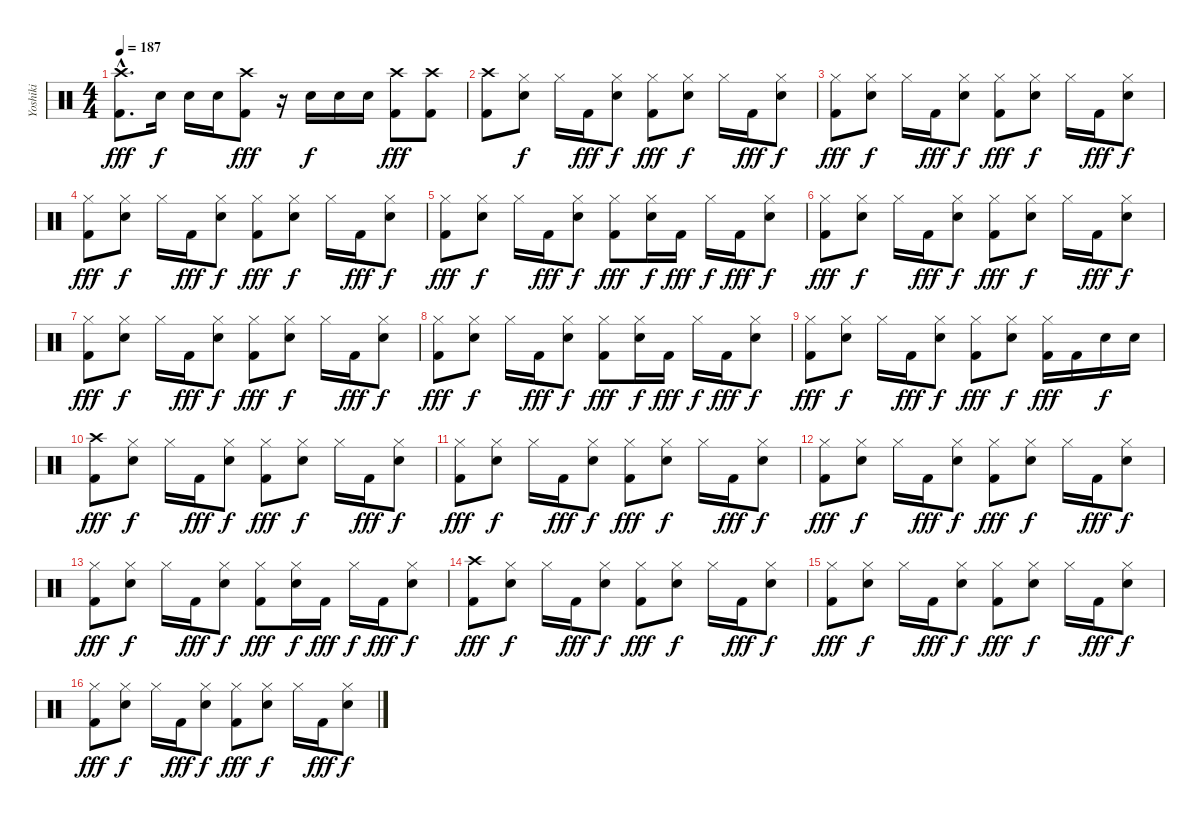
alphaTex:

\track ("Yoshiki" "Yoshiki") {instrument percussion}
\staff {score}
\articulation defaults
\ts (4 4)
\tempo 187
\clef neutral
\ks c
("Crash high (hit)"{hac} "Kick (hit) 2"{hac}).8{d dy fff} "Electric Snare (hit)".16{dy f} "Electric Snare (hit)".16 "Electric Snare (hit)".16 ("Crash high (hit)" "Kick (hit) 2").8{dy fff} r.16 "Electric Snare (hit)".16{dy f} "Electric Snare (hit)".16 "Electric Snare (hit)".16 ("Crash high (hit)" "Kick (hit) 2").8{dy fff} ("Crash high (hit)" "Kick (hit) 2").8 |
("Crash high (hit)" "Kick (hit) 2").8 ("Hi-Hat (closed)" "Electric Snare (hit)").8{dy f} "Hi-Hat (closed)".16 "Kick (hit) 2".16{dy fff} ("Hi-Hat (closed)" "Electric Snare (hit)").8{dy f} ("Hi-Hat (closed)" "Kick (hit) 2").8{dy fff} ("Hi-Hat (closed)" "Electric Snare (hit)").8{dy f} "Hi-Hat (closed)".16 "Kick (hit) 2".16{dy fff} ("Hi-Hat (closed)" "Electric Snare (hit)").8{dy f} |
("Hi-Hat (closed)" "Kick (hit) 2").8{dy fff} ("Hi-Hat (closed)" "Electric Snare (hit)").8{dy f} "Hi-Hat (closed)".16 "Kick (hit) 2".16{dy fff} ("Hi-Hat (closed)" "Electric Snare (hit)").8{dy f} ("Hi-Hat (closed)" "Kick (hit) 2").8{dy fff} ("Hi-Hat (closed)" "Electric Snare (hit)").8{dy f} "Hi-Hat (closed)".16 "Kick (hit) 2".16{dy fff} ("Hi-Hat (closed)" "Electric Snare (hit)").8{dy f} |
("Hi-Hat (closed)" "Kick (hit) 2").8{dy fff} ("Hi-Hat (closed)" "Electric Snare (hit)").8{dy f} "Hi-Hat (closed)".16 "Kick (hit) 2".16{dy fff} ("Hi-Hat (closed)" "Electric Snare (hit)").8{dy f} ("Hi-Hat (closed)" "Kick (hit) 2").8{dy fff} ("Hi-Hat (closed)" "Electric Snare (hit)").8{dy f} "Hi-Hat (closed)".16 "Kick (hit) 2".16{dy fff} ("Hi-Hat (closed)" "Electric Snare (hit)").8{dy f} |
("Hi-Hat (closed)" "Kick (hit) 2").8{dy fff} ("Hi-Hat (closed)" "Electric Snare (hit)").8{dy f} "Hi-Hat (closed)".16 "Kick (hit) 2".16{dy fff} ("Hi-Hat (closed)" "Electric Snare (hit)").8{dy f} ("Hi-Hat (closed)" "Kick (hit) 2").8{dy fff} ("Hi-Hat (closed)" "Electric Snare (hit)").16{dy f} "Kick (hit) 2".16{dy fff} "Hi-Hat (closed)".16{dy f} "Kick (hit) 2".16{dy fff} ("Hi-Hat (closed)" "Electric Snare (hit)").8{dy f} |
("Hi-Hat (closed)" "Kick (hit) 2").8{dy fff} ("Hi-Hat (closed)" "Electric Snare (hit)").8{dy f} "Hi-Hat (closed)".16 "Kick (hit) 2".16{dy fff} ("Hi-Hat (closed)" "Electric Snare (hit)").8{dy f} ("Hi-Hat (closed)" "Kick (hit) 2").8{dy fff} ("Hi-Hat (closed)" "Electric Snare (hit)").8{dy f} "Hi-Hat (closed)".16 "Kick (hit) 2".16{dy fff} ("Hi-Hat (closed)" "Electric Snare (hit)").8{dy f} |
("Hi-Hat (closed)" "Kick (hit) 2").8{dy fff} ("Hi-Hat (closed)" "Electric Snare (hit)").8{dy f} "Hi-Hat (closed)".16 "Kick (hit) 2".16{dy fff} ("Hi-Hat (closed)" "Electric Snare (hit)").8{dy f} ("Hi-Hat (closed)" "Kick (hit) 2").8{dy fff} ("Hi-Hat (closed)" "Electric Snare (hit)").8{dy f} "Hi-Hat (closed)".16 "Kick (hit) 2".16{dy fff} ("Hi-Hat (closed)" "Electric Snare (hit)").8{dy f} |
("Hi-Hat (closed)" "Kick (hit) 2").8{dy fff} ("Hi-Hat (closed)" "Electric Snare (hit)").8{dy f} "Hi-Hat (closed)".16 "Kick (hit) 2".16{dy fff} ("Hi-Hat (closed)" "Electric Snare (hit)").8{dy f} ("Hi-Hat (closed)" "Kick (hit) 2").8{dy fff} ("Hi-Hat (closed)" "Electric Snare (hit)").16{dy f} "Kick (hit) 2".16{dy fff} "Hi-Hat (closed)".16{dy f} "Kick (hit) 2".16{dy fff} ("Hi-Hat (closed)" "Electric Snare (hit)").8{dy f} |
("Hi-Hat (closed)" "Kick (hit) 2").8{dy fff} ("Hi-Hat (closed)" "Electric Snare (hit)").8{dy f} "Hi-Hat (closed)".16 "Kick (hit) 2".16{dy fff} ("Hi-Hat (closed)" "Electric Snare (hit)").8{dy f} ("Hi-Hat (closed)" "Kick (hit) 2").8{dy fff} ("Hi-Hat (closed)" "Electric Snare (hit)").8{dy f} ("Hi-Hat (closed)" "Kick (hit) 2").16{dy fff} "Kick (hit) 2".16 "Electric Snare (hit)".16{dy f} "Electric Snare (hit)".16 |
("Crash high (hit)" "Kick (hit) 2").8{dy fff} ("Hi-Hat (closed)" "Electric Snare (hit)").8{dy f} "Hi-Hat (closed)".16 "Kick (hit) 2".16{dy fff} ("Hi-Hat (closed)" "Electric Snare (hit)").8{dy f} ("Hi-Hat (closed)" "Kick (hit) 2").8{dy fff} ("Hi-Hat (closed)" "Electric Snare (hit)").8{dy f} "Hi-Hat (closed)".16 "Kick (hit) 2".16{dy fff} ("Hi-Hat (closed)" "Electric Snare (hit)").8{dy f} |
("Hi-Hat (closed)" "Kick (hit) 2").8{dy fff} ("Hi-Hat (closed)" "Electric Snare (hit)").8{dy f} "Hi-Hat (closed)".16 "Kick (hit) 2".16{dy fff} ("Hi-Hat (closed)" "Electric Snare (hit)").8{dy f} ("Hi-Hat (closed)" "Kick (hit) 2").8{dy fff} ("Hi-Hat (closed)" "Electric Snare (hit)").8{dy f} "Hi-Hat (closed)".16 "Kick (hit) 2".16{dy fff} ("Hi-Hat (closed)" "Electric Snare (hit)").8{dy f} |
("Hi-Hat (closed)" "Kick (hit) 2").8{dy fff} ("Hi-Hat (closed)" "Electric Snare (hit)").8{dy f} "Hi-Hat (closed)".16 "Kick (hit) 2".16{dy fff} ("Hi-Hat (closed)" "Electric Snare (hit)").8{dy f} ("Hi-Hat (closed)" "Kick (hit) 2").8{dy fff} ("Hi-Hat (closed)" "Electric Snare (hit)").8{dy f} "Hi-Hat (closed)".16 "Kick (hit) 2".16{dy fff} ("Hi-Hat (closed)" "Electric Snare (hit)").8{dy f} |
("Hi-Hat (closed)" "Kick (hit) 2").8{dy fff} ("Hi-Hat (closed)" "Electric Snare (hit)").8{dy f} "Hi-Hat (closed)".16 "Kick (hit) 2".16{dy fff} ("Hi-Hat (closed)" "Electric Snare (hit)").8{dy f} ("Hi-Hat (closed)" "Kick (hit) 2").8{dy fff} ("Hi-Hat (closed)" "Electric Snare (hit)").16{dy f} "Kick (hit) 2".16{dy fff} "Hi-Hat (closed)".16{dy f} "Kick (hit) 2".16{dy fff} ("Hi-Hat (closed)" "Electric Snare (hit)").8{dy f} |
("Crash high (hit)" "Kick (hit) 2").8{dy fff} ("Hi-Hat (closed)" "Electric Snare (hit)").8{dy f} "Hi-Hat (closed)".16 "Kick (hit) 2".16{dy fff} ("Hi-Hat (closed)" "Electric Snare (hit)").8{dy f} ("Hi-Hat (closed)" "Kick (hit) 2").8{dy fff} ("Hi-Hat (closed)" "Electric Snare (hit)").8{dy f} "Hi-Hat (closed)".16 "Kick (hit) 2".16{dy fff} ("Hi-Hat (closed)" "Electric Snare (hit)").8{dy f} |
("Hi-Hat (closed)" "Kick (hit) 2").8{dy fff} ("Hi-Hat (closed)" "Electric Snare (hit)").8{dy f} "Hi-Hat (closed)".16 "Kick (hit) 2".16{dy fff} ("Hi-Hat (closed)" "Electric Snare (hit)").8{dy f} ("Hi-Hat (closed)" "Kick (hit) 2").8{dy fff} ("Hi-Hat (closed)" "Electric Snare (hit)").8{dy f} "Hi-Hat (closed)".16 "Kick (hit) 2".16{dy fff} ("Hi-Hat (closed)" "Electric Snare (hit)").8{dy f} |
("Hi-Hat (closed)" "Kick (hit) 2").8{dy fff} ("Hi-Hat (closed)" "Electric Snare (hit)").8{dy f} "Hi-Hat (closed)".16 "Kick (hit) 2".16{dy fff} ("Hi-Hat (closed)" "Electric Snare (hit)").8{dy f} ("Hi-Hat (closed)" "Kick (hit) 2").8{dy fff} ("Hi-Hat (closed)" "Electric Snare (hit)").8{dy f} "Hi-Hat (closed)".16 "Kick (hit) 2".16{dy fff} ("Hi-Hat (closed)" "Electric Snare (hit)").8{dy f}
